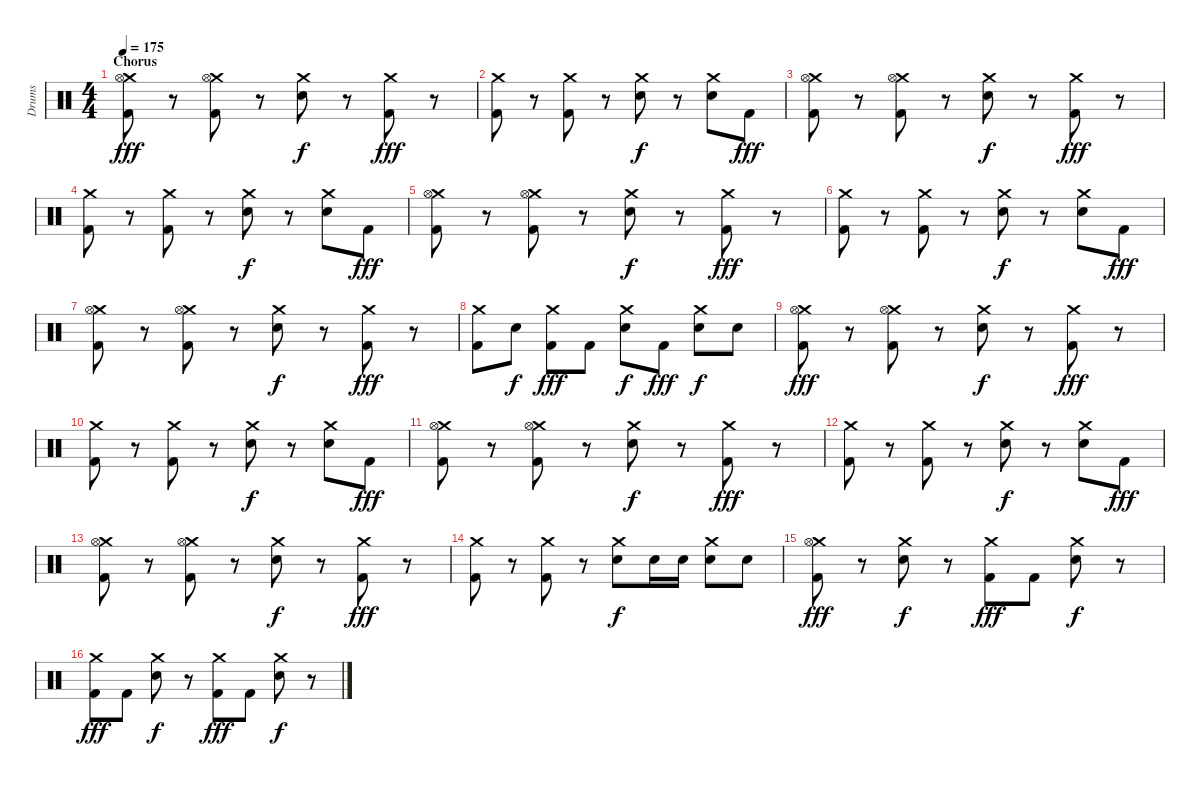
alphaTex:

\track ("Drums" "Drums") {instrument percussion}
\staff {score}
\articulation defaults
\ts (4 4)
\section ("" "Chorus")
\tempo 175
\clef neutral
\ks c
("Crash medium (hit)" "Hi-Hat (open)" "Kick (hit) 2").8{dy fff} r.8 ("Crash medium (hit)" "Hi-Hat (open)" "Kick (hit) 2").8 r.8 ("Crash medium (hit)" "Electric Snare (hit)").8{dy f} r.8 ("Crash medium (hit)" "Kick (hit) 2").8{dy fff} r.8 |
("Crash medium (hit)" "Kick (hit) 2").8 r.8 ("Crash medium (hit)" "Kick (hit) 2").8 r.8 ("Crash medium (hit)" "Electric Snare (hit)").8{dy f} r.8 ("Crash medium (hit)" "Electric Snare (hit)").8 "Kick (hit) 2".8{dy fff} |
("Crash medium (hit)" "Hi-Hat (open)" "Kick (hit) 2").8 r.8 ("Crash medium (hit)" "Hi-Hat (open)" "Kick (hit) 2").8 r.8 ("Crash medium (hit)" "Electric Snare (hit)").8{dy f} r.8 ("Crash medium (hit)" "Kick (hit) 2").8{dy fff} r.8 |
("Crash medium (hit)" "Kick (hit) 2").8 r.8 ("Crash medium (hit)" "Kick (hit) 2").8 r.8 ("Crash medium (hit)" "Electric Snare (hit)").8{dy f} r.8 ("Crash medium (hit)" "Electric Snare (hit)").8 "Kick (hit) 2".8{dy fff} |
("Crash medium (hit)" "Hi-Hat (open)" "Kick (hit) 2").8 r.8 ("Crash medium (hit)" "Hi-Hat (open)" "Kick (hit) 2").8 r.8 ("Crash medium (hit)" "Electric Snare (hit)").8{dy f} r.8 ("Crash medium (hit)" "Kick (hit) 2").8{dy fff} r.8 |
("Crash medium (hit)" "Kick (hit) 2").8 r.8 ("Crash medium (hit)" "Kick (hit) 2").8 r.8 ("Crash medium (hit)" "Electric Snare (hit)").8{dy f} r.8 ("Crash medium (hit)" "Electric Snare (hit)").8 "Kick (hit) 2".8{dy fff} |
("Crash medium (hit)" "Hi-Hat (open)" "Kick (hit) 2").8 r.8 ("Crash medium (hit)" "Hi-Hat (open)" "Kick (hit) 2").8 r.8 ("Crash medium (hit)" "Electric Snare (hit)").8{dy f} r.8 ("Crash medium (hit)" "Kick (hit) 2").8{dy fff} r.8 |
("Crash medium (hit)" "Kick (hit) 2").8 "Electric Snare (hit)".8{dy f} ("Crash medium (hit)" "Kick (hit) 2").8{dy fff} "Kick (hit) 2".8 ("Crash medium (hit)" "Electric Snare (hit)").8{dy f} "Kick (hit) 2".8{dy fff} ("Crash medium (hit)" "Electric Snare (hit)").8{dy f} "Electric Snare (hit)".8 |
("Crash medium (hit)" "Hi-Hat (open)" "Kick (hit) 2").8{dy fff} r.8 ("Crash medium (hit)" "Hi-Hat (open)" "Kick (hit) 2").8 r.8 ("Crash medium (hit)" "Electric Snare (hit)").8{dy f} r.8 ("Crash medium (hit)" "Kick (hit) 2").8{dy fff} r.8 |
("Crash medium (hit)" "Kick (hit) 2").8 r.8 ("Crash medium (hit)" "Kick (hit) 2").8 r.8 ("Crash medium (hit)" "Electric Snare (hit)").8{dy f} r.8 ("Crash medium (hit)" "Electric Snare (hit)").8 "Kick (hit) 2".8{dy fff} |
("Crash medium (hit)" "Hi-Hat (open)" "Kick (hit) 2").8 r.8 ("Crash medium (hit)" "Hi-Hat (open)" "Kick (hit) 2").8 r.8 ("Crash medium (hit)" "Electric Snare (hit)").8{dy f} r.8 ("Crash medium (hit)" "Kick (hit) 2").8{dy fff} r.8 |
("Crash medium (hit)" "Kick (hit) 2").8 r.8 ("Crash medium (hit)" "Kick (hit) 2").8 r.8 ("Crash medium (hit)" "Electric Snare (hit)").8{dy f} r.8 ("Crash medium (hit)" "Electric Snare (hit)").8 "Kick (hit) 2".8{dy fff} |
("Crash medium (hit)" "Hi-Hat (open)" "Kick (hit) 2").8 r.8 ("Crash medium (hit)" "Hi-Hat (open)" "Kick (hit) 2").8 r.8 ("Crash medium (hit)" "Electric Snare (hit)").8{dy f} r.8 ("Crash medium (hit)" "Kick (hit) 2").8{dy fff} r.8 |
("Crash medium (hit)" "Kick (hit) 2").8 r.8 ("Crash medium (hit)" "Kick (hit) 2").8 r.8 ("Crash medium (hit)" "Electric Snare (hit)").8{dy f} "Electric Snare (hit)".16 "Electric Snare (hit)".16 ("Crash medium (hit)" "Electric Snare (hit)").8 "Electric Snare (hit)".8 |
("Crash medium (hit)" "Hi-Hat (open)" "Kick (hit) 2").8{dy fff} r.8 ("Crash medium (hit)" "Electric Snare (hit)").8{dy f} r.8 ("Crash medium (hit)" "Kick (hit) 2").8{dy fff} "Kick (hit) 2".8 ("Crash medium (hit)" "Electric Snare (hit)").8{dy f} r.8 |
("Crash medium (hit)" "Kick (hit) 2").8{dy fff} "Kick (hit) 2".8 ("Crash medium (hit)" "Electric Snare (hit)").8{dy f} r.8 ("Crash medium (hit)" "Kick (hit) 2").8{dy fff} "Kick (hit) 2".8 ("Crash medium (hit)" "Electric Snare (hit)").8{dy f} r.8
